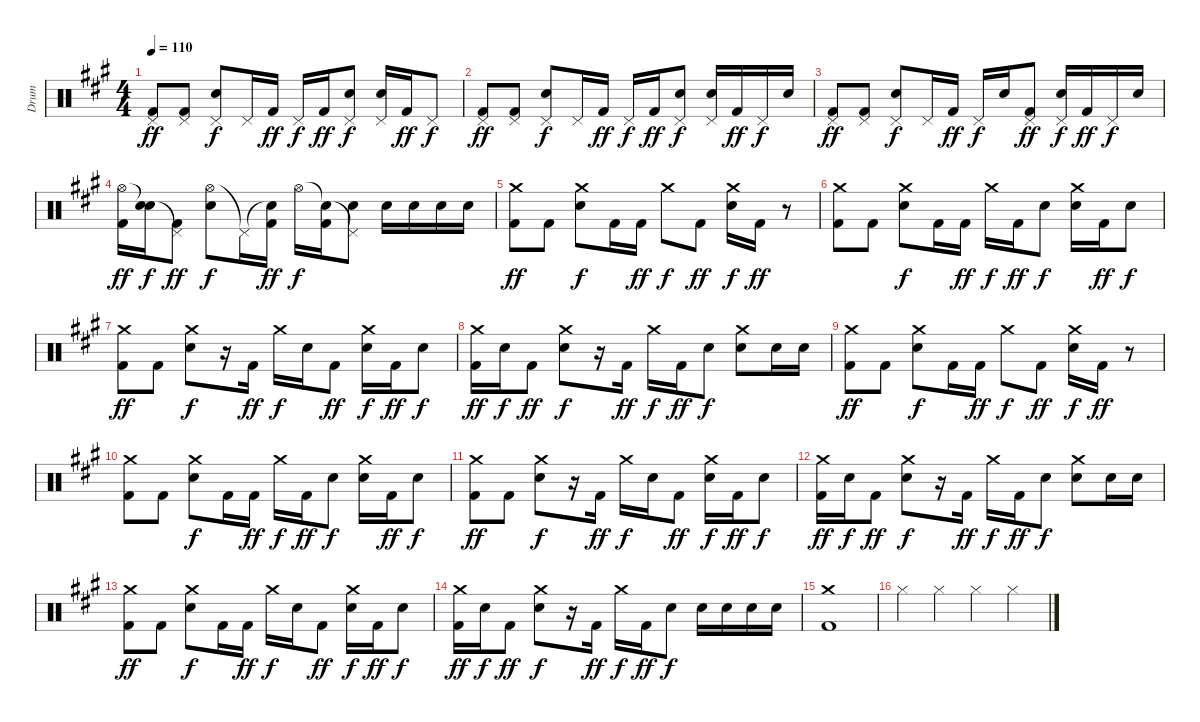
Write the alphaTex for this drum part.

\track ("Drum" "Drum") {instrument percussion}
\staff {score}
\articulation defaults
\ts (4 4)
\tempo 110
\clef neutral
\ks a
("Pedal Hi-Hat (hit)" "Kick (hit) 2").8{dy ff} ("Pedal Hi-Hat (hit)" "Kick (hit) 2").8 ("Pedal Hi-Hat (hit)" "Electric Snare (hit)").8{dy f} "Pedal Hi-Hat (hit)".16 "Kick (hit) 2".16{dy ff} "Pedal Hi-Hat (hit)".16{dy f} "Kick (hit) 2".16{dy ff} ("Pedal Hi-Hat (hit)" "Electric Snare (hit)").8{dy f} ("Pedal Hi-Hat (hit)" "Electric Snare (hit)").16 "Kick (hit) 2".16{dy ff} "Pedal Hi-Hat (hit)".8{dy f} |
("Pedal Hi-Hat (hit)" "Kick (hit) 2").8{dy ff} ("Pedal Hi-Hat (hit)" "Kick (hit) 2").8 ("Pedal Hi-Hat (hit)" "Electric Snare (hit)").8{dy f} "Pedal Hi-Hat (hit)".16 "Kick (hit) 2".16{dy ff} "Pedal Hi-Hat (hit)".16{dy f} "Kick (hit) 2".16{dy ff} ("Pedal Hi-Hat (hit)" "Electric Snare (hit)").8{dy f} ("Pedal Hi-Hat (hit)" "Electric Snare (hit)").16 "Kick (hit) 2".16{dy ff} "Pedal Hi-Hat (hit)".16{dy f} "Electric Snare (hit)".16 |
("Pedal Hi-Hat (hit)" "Kick (hit) 2").8{dy ff} ("Pedal Hi-Hat (hit)" "Kick (hit) 2").8 ("Pedal Hi-Hat (hit)" "Electric Snare (hit)").8{dy f} "Pedal Hi-Hat (hit)".16 "Kick (hit) 2".16{dy ff} "Pedal Hi-Hat (hit)".16{dy f} "Electric Snare (hit)".16 ("Pedal Hi-Hat (hit)" "Kick (hit) 2").8{dy ff} ("Pedal Hi-Hat (hit)" "Electric Snare (hit)").16{dy f} "Kick (hit) 2".16{dy ff} "Pedal Hi-Hat (hit)".16{dy f} "Electric Snare (hit)".16 |
("Hi-Hat (open)" "Kick (hit) 2").16{dy ff} ("Snare (hit)"{t} "Electric Snare (hit)").16{dy f} ("Pedal Hi-Hat (hit)"{t} "Kick (hit) 2").8{dy ff} ("Hi-Hat (open)" "Electric Snare (hit)").8{dy f} "Pedal Hi-Hat (hit)"{t}.16 ("Snare (hit)"{t} "Kick (hit) 2").16{dy ff} "Hi-Hat (open)".16{dy f} ("Snare (hit)"{t} "Kick (hit) 2").16 ("Pedal Hi-Hat (hit)"{t} "Electric Snare (hit)").8 "Electric Snare (hit)".16 "Electric Snare (hit)".16 "Electric Snare (hit)".16 "Electric Snare (hit)".16 |
\ks f#minor
("Crash medium (hit)" "Kick (hit) 2").8{dy ff} "Kick (hit) 2".8 ("Crash medium (hit)" "Electric Snare (hit)").8{dy f} "Kick (hit) 2".16 "Kick (hit) 2".16{dy ff} "Crash medium (hit)".8{dy f} "Kick (hit) 2".8{dy ff} ("Crash medium (hit)" "Electric Snare (hit)").16{dy f} "Kick (hit) 2".16{dy ff} r.8 |
("Crash medium (hit)" "Kick (hit) 2").8 "Kick (hit) 2".8 ("Crash medium (hit)" "Electric Snare (hit)").8{dy f} "Kick (hit) 2".16 "Kick (hit) 2".16{dy ff} "Crash medium (hit)".16{dy f} "Kick (hit) 2".16{dy ff} "Electric Snare (hit)".8{dy f} ("Crash medium (hit)" "Electric Snare (hit)").16 "Kick (hit) 2".16{dy ff} "Electric Snare (hit)".8{dy f} |
("Crash medium (hit)" "Kick (hit) 2").8{dy ff} "Kick (hit) 2".8 ("Crash medium (hit)" "Electric Snare (hit)").8{dy f} r.16 "Kick (hit) 2".16{dy ff} "Crash medium (hit)".16{dy f} "Electric Snare (hit)".16 "Kick (hit) 2".8{dy ff} ("Crash medium (hit)" "Electric Snare (hit)").16{dy f} "Kick (hit) 2".16{dy ff} "Electric Snare (hit)".8{dy f} |
("Crash medium (hit)" "Kick (hit) 2").16{dy ff} "Electric Snare (hit)".16{dy f} "Kick (hit) 2".8{dy ff} ("Crash medium (hit)" "Electric Snare (hit)").8{dy f} r.16 "Kick (hit) 2".16{dy ff} "Crash medium (hit)".16{dy f} "Kick (hit) 2".16{dy ff} "Electric Snare (hit)".8{dy f} ("Crash medium (hit)" "Electric Snare (hit)").8 "Electric Snare (hit)".16 "Electric Snare (hit)".16 |
("Crash medium (hit)" "Kick (hit) 2").8{dy ff} "Kick (hit) 2".8 ("Crash medium (hit)" "Electric Snare (hit)").8{dy f} "Kick (hit) 2".16 "Kick (hit) 2".16{dy ff} "Crash medium (hit)".8{dy f} "Kick (hit) 2".8{dy ff} ("Crash medium (hit)" "Electric Snare (hit)").16{dy f} "Kick (hit) 2".16{dy ff} r.8 |
("Crash medium (hit)" "Kick (hit) 2").8 "Kick (hit) 2".8 ("Crash medium (hit)" "Electric Snare (hit)").8{dy f} "Kick (hit) 2".16 "Kick (hit) 2".16{dy ff} "Crash medium (hit)".16{dy f} "Kick (hit) 2".16{dy ff} "Electric Snare (hit)".8{dy f} ("Crash medium (hit)" "Electric Snare (hit)").16 "Kick (hit) 2".16{dy ff} "Electric Snare (hit)".8{dy f} |
("Crash medium (hit)" "Kick (hit) 2").8{dy ff} "Kick (hit) 2".8 ("Crash medium (hit)" "Electric Snare (hit)").8{dy f} r.16 "Kick (hit) 2".16{dy ff} "Crash medium (hit)".16{dy f} "Electric Snare (hit)".16 "Kick (hit) 2".8{dy ff} ("Crash medium (hit)" "Electric Snare (hit)").16{dy f} "Kick (hit) 2".16{dy ff} "Electric Snare (hit)".8{dy f} |
("Crash medium (hit)" "Kick (hit) 2").16{dy ff} "Electric Snare (hit)".16{dy f} "Kick (hit) 2".8{dy ff} ("Crash medium (hit)" "Electric Snare (hit)").8{dy f} r.16 "Kick (hit) 2".16{dy ff} "Crash medium (hit)".16{dy f} "Kick (hit) 2".16{dy ff} "Electric Snare (hit)".8{dy f} ("Crash medium (hit)" "Electric Snare (hit)").8 "Electric Snare (hit)".16 "Electric Snare (hit)".16 |
("Crash medium (hit)" "Kick (hit) 2").8{dy ff} "Kick (hit) 2".8 ("Crash medium (hit)" "Electric Snare (hit)").8{dy f} "Kick (hit) 2".16 "Kick (hit) 2".16{dy ff} "Crash medium (hit)".16{dy f} "Electric Snare (hit)".16 "Kick (hit) 2".8{dy ff} ("Crash medium (hit)" "Electric Snare (hit)").16{dy f} "Kick (hit) 2".16{dy ff} "Electric Snare (hit)".8{dy f} |
("Crash medium (hit)" "Kick (hit) 2").16{dy ff} "Electric Snare (hit)".16{dy f} "Kick (hit) 2".8{dy ff} ("Crash medium (hit)" "Electric Snare (hit)").8{dy f} r.16 "Kick (hit) 2".16{dy ff} "Crash medium (hit)".16{dy f} "Kick (hit) 2".16{dy ff} "Electric Snare (hit)".8{dy f} "Electric Snare (hit)".16 "Electric Snare (hit)".16 "Electric Snare (hit)".16 "Electric Snare (hit)".16 |
\ks a
("Crash medium (hit)" "Kick (hit) 2").1 |
"Hi-Hat (closed)".4 "Hi-Hat (closed)".4 "Hi-Hat (closed)".4 "Hi-Hat (closed)".4
